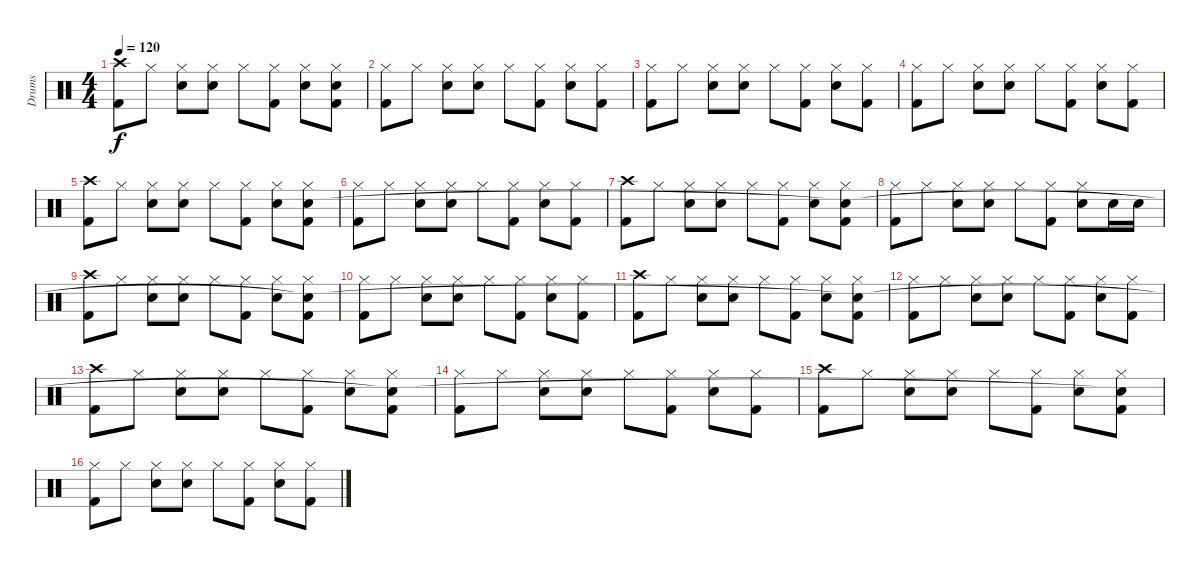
\track ("Drums" "Drums") {instrument percussion}
\staff {score}
\articulation defaults
\ts (4 4)
\tempo 120
\clef neutral
\ks c
("Kick (hit) 2" "Crash high (hit)").8{dy f} "Hi-Hat (closed)".8 ("Hi-Hat (closed)" "Snare (hit) 2").8 ("Hi-Hat (closed)" "Snare (hit) 2").8 "Hi-Hat (closed)".8 ("Hi-Hat (closed)" "Kick (hit) 2").8 ("Hi-Hat (closed)" "Snare (hit) 2").8 ("Hi-Hat (closed)" "Kick (hit) 2" "Snare (hit)").8 |
("Hi-Hat (closed)" "Kick (hit) 2").8 "Hi-Hat (closed)".8 ("Hi-Hat (closed)" "Snare (hit) 2").8 ("Hi-Hat (closed)" "Snare (hit) 2").8 "Hi-Hat (closed)".8 ("Hi-Hat (closed)" "Kick (hit) 2").8 ("Hi-Hat (closed)" "Snare (hit) 2").8 ("Hi-Hat (closed)" "Kick (hit) 2").8 |
("Hi-Hat (closed)" "Kick (hit) 2").8 "Hi-Hat (closed)".8 ("Hi-Hat (closed)" "Snare (hit) 2").8 ("Hi-Hat (closed)" "Snare (hit) 2").8 "Hi-Hat (closed)".8 ("Hi-Hat (closed)" "Kick (hit) 2").8 ("Hi-Hat (closed)" "Snare (hit) 2").8 ("Hi-Hat (closed)" "Kick (hit) 2").8 |
("Hi-Hat (closed)" "Kick (hit) 2").8 "Hi-Hat (closed)".8 ("Hi-Hat (closed)" "Snare (hit) 2").8 ("Hi-Hat (closed)" "Snare (hit) 2").8 "Hi-Hat (closed)".8 ("Hi-Hat (closed)" "Kick (hit) 2").8 ("Hi-Hat (closed)" "Snare (hit) 2").8 ("Hi-Hat (closed)" "Kick (hit) 2").8 |
("Kick (hit) 2" "Crash high (hit)").8 "Hi-Hat (closed)".8 ("Hi-Hat (closed)" "Snare (hit) 2").8 ("Hi-Hat (closed)" "Snare (hit) 2").8 "Hi-Hat (closed)".8 ("Hi-Hat (closed)" "Kick (hit) 2").8 ("Hi-Hat (closed)" "Snare (hit) 2").8 ("Hi-Hat (closed)" "Kick (hit) 2" "Snare (hit)").8 |
("Hi-Hat (closed)" "Kick (hit) 2").8 "Hi-Hat (closed)".8 ("Hi-Hat (closed)" "Snare (hit) 2").8 ("Hi-Hat (closed)" "Snare (hit) 2").8 "Hi-Hat (closed)".8 ("Hi-Hat (closed)" "Kick (hit) 2").8 ("Hi-Hat (closed)" "Snare (hit) 2").8 ("Hi-Hat (closed)" "Kick (hit) 2").8 |
("Kick (hit) 2" "Crash high (hit)").8 "Hi-Hat (closed)".8 ("Hi-Hat (closed)" "Snare (hit) 2").8 ("Hi-Hat (closed)" "Snare (hit) 2").8 "Hi-Hat (closed)".8 ("Hi-Hat (closed)" "Kick (hit) 2").8 ("Hi-Hat (closed)" "Snare (hit) 2").8 ("Hi-Hat (closed)" "Kick (hit) 2" "Snare (hit)"{t}).8 |
("Hi-Hat (closed)" "Kick (hit) 2").8 "Hi-Hat (closed)".8 ("Hi-Hat (closed)" "Snare (hit) 2").8 ("Hi-Hat (closed)" "Snare (hit) 2").8 "Hi-Hat (closed)".8 ("Hi-Hat (closed)" "Kick (hit) 2").8 ("Hi-Hat (closed)" "Snare (hit) 2").8 "Snare (hit) 2".16 "Snare (hit) 2".16 |
("Kick (hit) 2" "Crash high (hit)").8 "Hi-Hat (closed)".8 ("Hi-Hat (closed)" "Snare (hit) 2").8 ("Hi-Hat (closed)" "Snare (hit) 2").8 "Hi-Hat (closed)".8 ("Hi-Hat (closed)" "Kick (hit) 2").8 ("Hi-Hat (closed)" "Snare (hit) 2").8 ("Hi-Hat (closed)" "Kick (hit) 2" "Snare (hit)"{t}).8 |
("Hi-Hat (closed)" "Kick (hit) 2").8 "Hi-Hat (closed)".8 ("Hi-Hat (closed)" "Snare (hit) 2").8 ("Hi-Hat (closed)" "Snare (hit) 2").8 "Hi-Hat (closed)".8 ("Hi-Hat (closed)" "Kick (hit) 2").8 ("Hi-Hat (closed)" "Snare (hit) 2").8 ("Hi-Hat (closed)" "Kick (hit) 2").8 |
("Kick (hit) 2" "Crash high (hit)").8 "Hi-Hat (closed)".8 ("Hi-Hat (closed)" "Snare (hit) 2").8 ("Hi-Hat (closed)" "Snare (hit) 2").8 "Hi-Hat (closed)".8 ("Hi-Hat (closed)" "Kick (hit) 2").8 ("Hi-Hat (closed)" "Snare (hit) 2").8 ("Hi-Hat (closed)" "Kick (hit) 2" "Snare (hit)"{t}).8 |
("Hi-Hat (closed)" "Kick (hit) 2").8 "Hi-Hat (closed)".8 ("Hi-Hat (closed)" "Snare (hit) 2").8 ("Hi-Hat (closed)" "Snare (hit) 2").8 "Hi-Hat (closed)".8 ("Hi-Hat (closed)" "Kick (hit) 2").8 ("Hi-Hat (closed)" "Snare (hit) 2").8 ("Hi-Hat (closed)" "Kick (hit) 2").8 |
("Kick (hit) 2" "Crash high (hit)").8 "Hi-Hat (closed)".8 ("Hi-Hat (closed)" "Snare (hit) 2").8 ("Hi-Hat (closed)" "Snare (hit) 2").8 "Hi-Hat (closed)".8 ("Hi-Hat (closed)" "Kick (hit) 2").8 ("Hi-Hat (closed)" "Snare (hit) 2").8 ("Hi-Hat (closed)" "Kick (hit) 2" "Snare (hit)"{t}).8 |
("Hi-Hat (closed)" "Kick (hit) 2").8 "Hi-Hat (closed)".8 ("Hi-Hat (closed)" "Snare (hit) 2").8 ("Hi-Hat (closed)" "Snare (hit) 2").8 "Hi-Hat (closed)".8 ("Hi-Hat (closed)" "Kick (hit) 2").8 ("Hi-Hat (closed)" "Snare (hit) 2").8 ("Hi-Hat (closed)" "Kick (hit) 2").8 |
("Kick (hit) 2" "Crash high (hit)").8 "Hi-Hat (closed)".8 ("Hi-Hat (closed)" "Snare (hit) 2").8 ("Hi-Hat (closed)" "Snare (hit) 2").8 "Hi-Hat (closed)".8 ("Hi-Hat (closed)" "Kick (hit) 2").8 ("Hi-Hat (closed)" "Snare (hit) 2").8 ("Hi-Hat (closed)" "Kick (hit) 2" "Snare (hit)"{t}).8 |
("Hi-Hat (closed)" "Kick (hit) 2").8 "Hi-Hat (closed)".8 ("Hi-Hat (closed)" "Snare (hit) 2").8 ("Hi-Hat (closed)" "Snare (hit) 2").8 "Hi-Hat (closed)".8 ("Hi-Hat (closed)" "Kick (hit) 2").8 ("Hi-Hat (closed)" "Snare (hit) 2").8 ("Hi-Hat (closed)" "Kick (hit) 2").8
